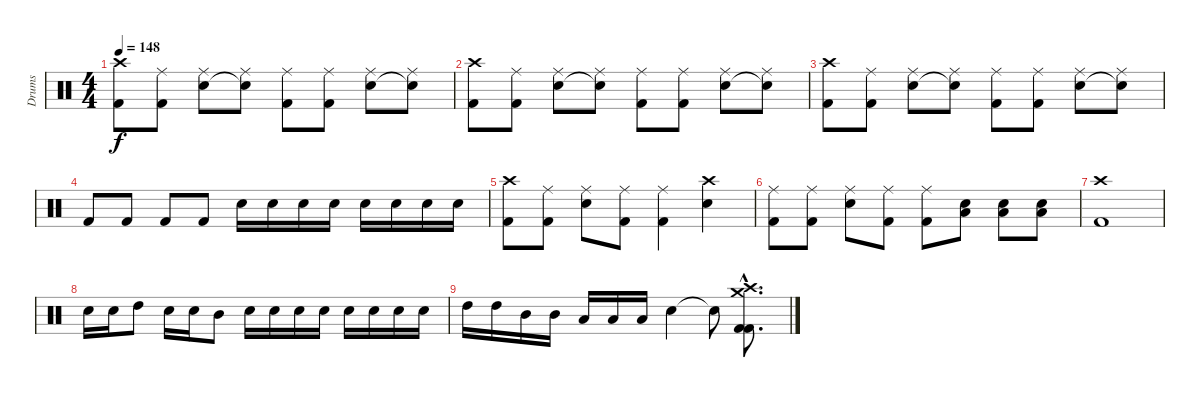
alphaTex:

\track ("Drums" "Drums") {instrument percussion}
\staff {score}
\articulation defaults
\ts (4 4)
\tempo 148
\clef neutral
\ks c
("Crash high (hit)" "Kick (hit) 2").8{dy f} ("Ride (middle)" "Kick (hit) 2").8 ("Ride (middle)" "Snare (hit) 2").8 ("Ride (middle)" "Snare (hit)"{t}).8 ("Ride (middle)" "Kick (hit) 2").8 ("Ride (middle)" "Kick (hit) 2").8 ("Ride (middle)" "Snare (hit) 2").8 ("Ride (middle)" "Snare (hit)"{t}).8 |
("Crash high (hit)" "Kick (hit) 2").8 ("Ride (middle)" "Kick (hit) 2").8 ("Ride (middle)" "Snare (hit) 2").8 ("Ride (middle)" "Snare (hit)"{t}).8 ("Ride (middle)" "Kick (hit) 2").8 ("Ride (middle)" "Kick (hit) 2").8 ("Ride (middle)" "Snare (hit) 2").8 ("Ride (middle)" "Snare (hit)"{t}).8 |
("Crash high (hit)" "Kick (hit) 2").8 ("Ride (middle)" "Kick (hit) 2").8 ("Ride (middle)" "Snare (hit) 2").8 ("Ride (middle)" "Snare (hit)"{t}).8 ("Ride (middle)" "Kick (hit) 2").8 ("Ride (middle)" "Kick (hit) 2").8 ("Ride (middle)" "Snare (hit) 2").8 ("Ride (middle)" "Snare (hit)"{t}).8 |
"Kick (hit) 2".8 "Kick (hit) 2".8 "Kick (hit) 2".8 "Kick (hit) 2".8 "Snare (hit) 2".16 "Snare (hit) 2".16 "Snare (hit) 2".16 "Snare (hit) 2".16 "Snare (hit) 2".16 "Snare (hit) 2".16 "Snare (hit) 2".16 "Snare (hit) 2".16 |
("Crash high (hit)" "Kick (hit) 2").8 ("Ride (middle)" "Kick (hit) 2").8 ("Ride (middle)" "Snare (hit) 2").8 ("Ride (middle)" "Kick (hit) 2").8 ("Ride (middle)" "Kick (hit) 2").4 ("Crash high (hit)" "Snare (hit) 2").4 |
("Ride (middle)" "Kick (hit) 2").8 ("Ride (middle)" "Kick (hit) 2").8 ("Ride (middle)" "Snare (hit) 2").8 ("Ride (middle)" "Kick (hit) 2").8 ("Ride (middle)" "Kick (hit) 2").8 ("Snare (hit) 2" "Low Floor Tom (hit)").8 ("Snare (hit) 2" "Low Floor Tom (hit)").8 ("Snare (hit) 2" "Low Floor Tom (hit)").8 |
("Crash high (hit)" "Kick (hit) 2").1 |
"Snare (hit) 2".16 "Snare (hit) 2".16 "High Tom (hit)".8 "Snare (hit) 2".16 "Snare (hit) 2".16 "Mid Tom (hit)".8 "Snare (hit) 2".16 "Snare (hit) 2".16 "Snare (hit) 2".16 "Snare (hit) 2".16 "Snare (hit) 2".16 "Snare (hit) 2".16 "Snare (hit) 2".16 "Snare (hit) 2".16 |
"High Tom (hit)".16 "High Tom (hit)".16 "Mid Tom (hit)".16 "Mid Tom (hit)".16 "Low Floor Tom (hit)".16 "Low Floor Tom (hit)".16 "Low Floor Tom (hit)".16 "Snare (hit) 2".4 "Snare (hit)"{t}.8 ("Crash medium (hit)"{hac} "Crash high (hit)"{hac} "Kick (hit) 2"{hac} "Kick (hit) 2"{hac}).8{d}
